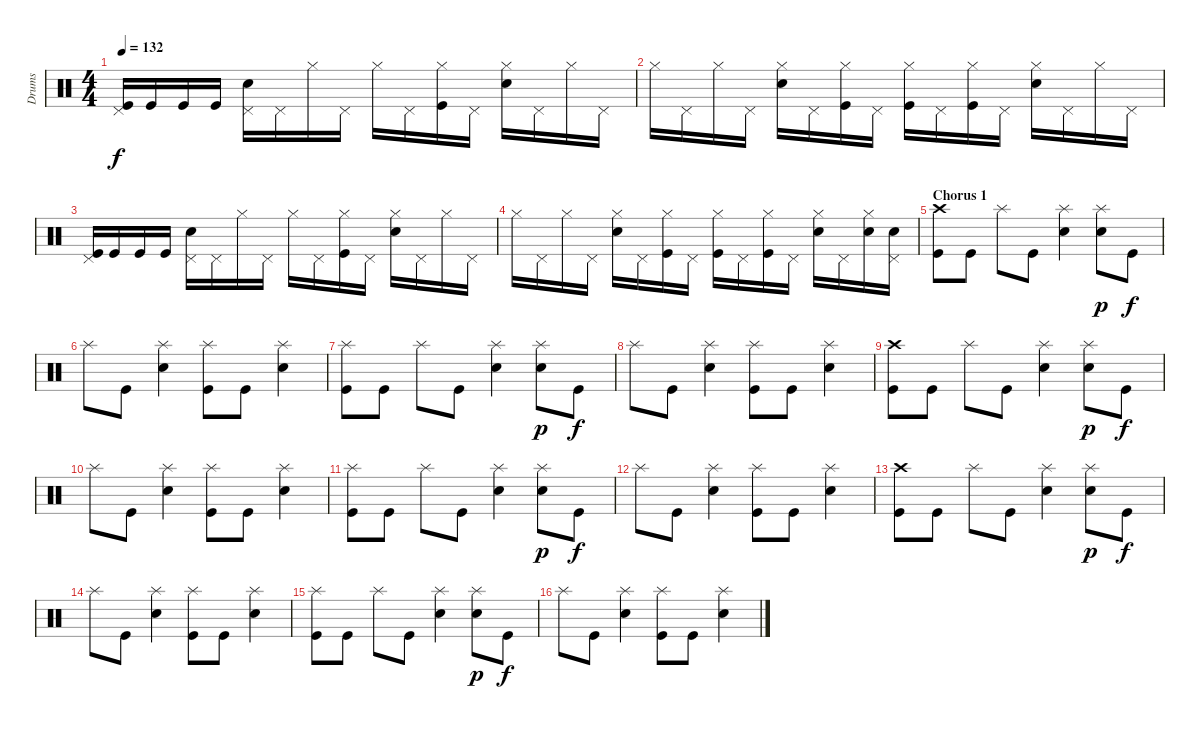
\track ("Drums" "Drums") {instrument percussion}
\staff {score}
\articulation defaults
\ts (4 4)
\tempo 132
\clef neutral
\ks c
("Pedal Hi-Hat (hit)" "Kick (hit)").16{dy f} "Kick (hit)".16 "Kick (hit)".16 "Kick (hit)".16 ("Snare (hit) 2" "Pedal Hi-Hat (hit)").16 "Pedal Hi-Hat (hit)".16 "Hi-Hat (closed)".16 "Pedal Hi-Hat (hit)".16 "Hi-Hat (closed)".16 "Pedal Hi-Hat (hit)".16 ("Hi-Hat (closed)" "Kick (hit)").16 "Pedal Hi-Hat (hit)".16 ("Snare (hit) 2" "Hi-Hat (closed)").16 "Pedal Hi-Hat (hit)".16 "Hi-Hat (closed)".16 "Pedal Hi-Hat (hit)".16 |
"Hi-Hat (closed)".16 "Pedal Hi-Hat (hit)".16 "Hi-Hat (closed)".16 "Pedal Hi-Hat (hit)".16 ("Snare (hit) 2" "Hi-Hat (closed)").16 "Pedal Hi-Hat (hit)".16 ("Hi-Hat (closed)" "Kick (hit)").16 "Pedal Hi-Hat (hit)".16 ("Hi-Hat (closed)" "Kick (hit)").16 "Pedal Hi-Hat (hit)".16 ("Hi-Hat (closed)" "Kick (hit)").16 "Pedal Hi-Hat (hit)".16 ("Snare (hit) 2" "Hi-Hat (closed)").16 "Pedal Hi-Hat (hit)".16 "Hi-Hat (closed)".16 "Pedal Hi-Hat (hit)".16 |
("Pedal Hi-Hat (hit)" "Kick (hit)").16 "Kick (hit)".16 "Kick (hit)".16 "Kick (hit)".16 ("Snare (hit) 2" "Pedal Hi-Hat (hit)").16 "Pedal Hi-Hat (hit)".16 "Hi-Hat (closed)".16 "Pedal Hi-Hat (hit)".16 "Hi-Hat (closed)".16 "Pedal Hi-Hat (hit)".16 ("Hi-Hat (closed)" "Kick (hit)").16 "Pedal Hi-Hat (hit)".16 ("Snare (hit) 2" "Hi-Hat (closed)").16 "Pedal Hi-Hat (hit)".16 "Hi-Hat (closed)".16 "Pedal Hi-Hat (hit)".16 |
"Hi-Hat (closed)".16 "Pedal Hi-Hat (hit)".16 "Hi-Hat (closed)".16 "Pedal Hi-Hat (hit)".16 ("Snare (hit) 2" "Hi-Hat (closed)").16 "Pedal Hi-Hat (hit)".16 ("Hi-Hat (closed)" "Kick (hit)").16 "Pedal Hi-Hat (hit)".16 ("Hi-Hat (closed)" "Kick (hit)").16 "Pedal Hi-Hat (hit)".16 ("Hi-Hat (closed)" "Kick (hit)").16 "Pedal Hi-Hat (hit)".16 ("Snare (hit) 2" "Hi-Hat (closed)").16 "Pedal Hi-Hat (hit)".16 ("Snare (hit) 2" "Hi-Hat (closed)").16 ("Snare (hit) 2" "Pedal Hi-Hat (hit)").16 |
\section ("" "Chorus 1")
("Crash high (hit)" "Kick (hit)").8 "Kick (hit)".8 "Splash (hit)".8 "Kick (hit)".8 ("Snare (hit) 2" "Splash (hit)").4 ("Snare (hit) 2" "Splash (hit)").8{dy p} "Kick (hit)".8{dy f} |
"Splash (hit)".8 "Kick (hit)".8 ("Snare (hit) 2" "Splash (hit)").4 ("Splash (hit)" "Kick (hit)").8 "Kick (hit)".8 ("Snare (hit) 2" "Splash (hit)").4 |
("Splash (hit)" "Kick (hit)").8 "Kick (hit)".8 "Splash (hit)".8 "Kick (hit)".8 ("Snare (hit) 2" "Splash (hit)").4 ("Snare (hit) 2" "Splash (hit)").8{dy p} "Kick (hit)".8{dy f} |
"Splash (hit)".8 "Kick (hit)".8 ("Snare (hit) 2" "Splash (hit)").4 ("Splash (hit)" "Kick (hit)").8 "Kick (hit)".8 ("Snare (hit) 2" "Splash (hit)").4 |
("Crash high (hit)" "Kick (hit)").8 "Kick (hit)".8 "Splash (hit)".8 "Kick (hit)".8 ("Snare (hit) 2" "Splash (hit)").4 ("Snare (hit) 2" "Splash (hit)").8{dy p} "Kick (hit)".8{dy f} |
"Splash (hit)".8 "Kick (hit)".8 ("Snare (hit) 2" "Splash (hit)").4 ("Splash (hit)" "Kick (hit)").8 "Kick (hit)".8 ("Snare (hit) 2" "Splash (hit)").4 |
("Splash (hit)" "Kick (hit)").8 "Kick (hit)".8 "Splash (hit)".8 "Kick (hit)".8 ("Snare (hit) 2" "Splash (hit)").4 ("Snare (hit) 2" "Splash (hit)").8{dy p} "Kick (hit)".8{dy f} |
"Splash (hit)".8 "Kick (hit)".8 ("Snare (hit) 2" "Splash (hit)").4 ("Splash (hit)" "Kick (hit)").8 "Kick (hit)".8 ("Snare (hit) 2" "Splash (hit)").4 |
("Crash high (hit)" "Kick (hit)").8 "Kick (hit)".8 "Splash (hit)".8 "Kick (hit)".8 ("Snare (hit) 2" "Splash (hit)").4 ("Snare (hit) 2" "Splash (hit)").8{dy p} "Kick (hit)".8{dy f} |
"Splash (hit)".8 "Kick (hit)".8 ("Snare (hit) 2" "Splash (hit)").4 ("Splash (hit)" "Kick (hit)").8 "Kick (hit)".8 ("Snare (hit) 2" "Splash (hit)").4 |
("Splash (hit)" "Kick (hit)").8 "Kick (hit)".8 "Splash (hit)".8 "Kick (hit)".8 ("Snare (hit) 2" "Splash (hit)").4 ("Snare (hit) 2" "Splash (hit)").8{dy p} "Kick (hit)".8{dy f} |
"Splash (hit)".8 "Kick (hit)".8 ("Snare (hit) 2" "Splash (hit)").4 ("Splash (hit)" "Kick (hit)").8 "Kick (hit)".8 ("Snare (hit) 2" "Splash (hit)").4
